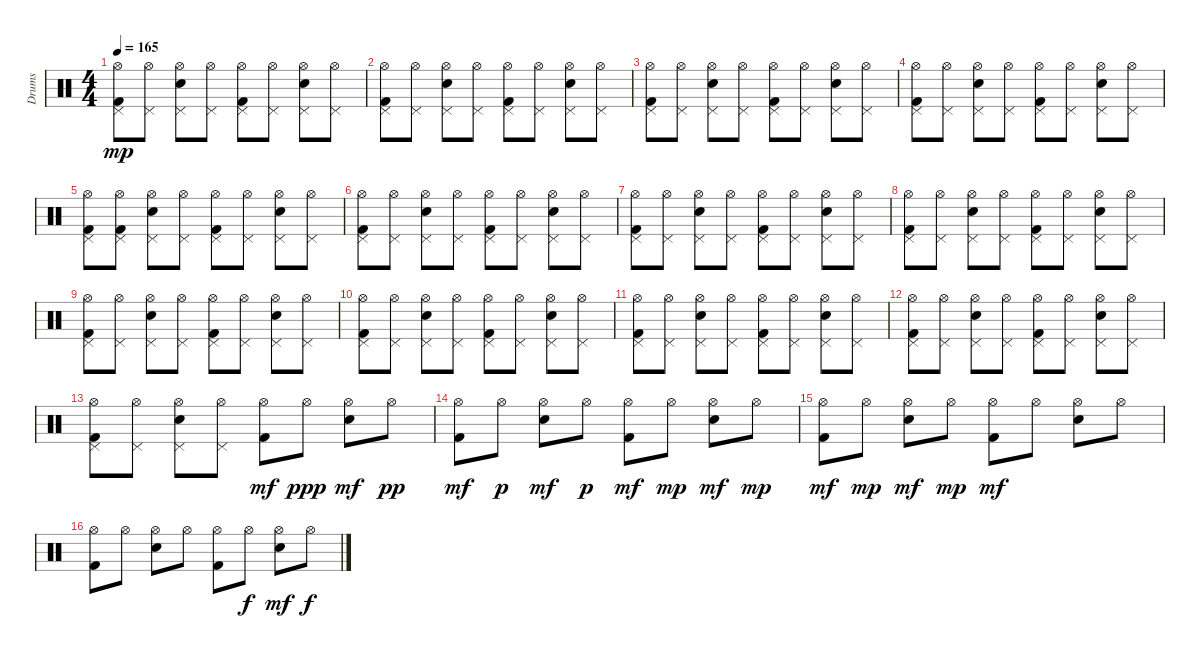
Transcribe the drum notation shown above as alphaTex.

\track ("Drums" "Drums") {instrument percussion}
\staff {score}
\articulation defaults
\ts (4 4)
\tempo 165
\clef neutral
\ks c
("Hi-Hat (open)" "Pedal Hi-Hat (hit)" "Kick (hit) 2").8{dy mp} ("Hi-Hat (open)" "Pedal Hi-Hat (hit)").8 ("Hi-Hat (open)" "Pedal Hi-Hat (hit)" "Electric Snare (hit)").8 ("Hi-Hat (open)" "Pedal Hi-Hat (hit)").8 ("Hi-Hat (open)" "Pedal Hi-Hat (hit)" "Kick (hit) 2").8 ("Hi-Hat (open)" "Pedal Hi-Hat (hit)").8 ("Hi-Hat (open)" "Pedal Hi-Hat (hit)" "Electric Snare (hit)").8 ("Hi-Hat (open)" "Pedal Hi-Hat (hit)").8 |
("Hi-Hat (open)" "Pedal Hi-Hat (hit)" "Kick (hit) 2").8 ("Hi-Hat (open)" "Pedal Hi-Hat (hit)").8 ("Hi-Hat (open)" "Pedal Hi-Hat (hit)" "Electric Snare (hit)").8 ("Hi-Hat (open)" "Pedal Hi-Hat (hit)").8 ("Hi-Hat (open)" "Pedal Hi-Hat (hit)" "Kick (hit) 2").8 ("Hi-Hat (open)" "Pedal Hi-Hat (hit)").8 ("Hi-Hat (open)" "Pedal Hi-Hat (hit)" "Electric Snare (hit)").8 ("Hi-Hat (open)" "Pedal Hi-Hat (hit)").8 |
("Hi-Hat (open)" "Pedal Hi-Hat (hit)" "Kick (hit) 2").8 ("Hi-Hat (open)" "Pedal Hi-Hat (hit)").8 ("Hi-Hat (open)" "Pedal Hi-Hat (hit)" "Electric Snare (hit)").8 ("Hi-Hat (open)" "Pedal Hi-Hat (hit)").8 ("Hi-Hat (open)" "Pedal Hi-Hat (hit)" "Kick (hit) 2").8 ("Hi-Hat (open)" "Pedal Hi-Hat (hit)").8 ("Hi-Hat (open)" "Pedal Hi-Hat (hit)" "Electric Snare (hit)").8 ("Hi-Hat (open)" "Pedal Hi-Hat (hit)").8 |
("Hi-Hat (open)" "Pedal Hi-Hat (hit)" "Kick (hit) 2").8 ("Hi-Hat (open)" "Pedal Hi-Hat (hit)").8 ("Hi-Hat (open)" "Pedal Hi-Hat (hit)" "Electric Snare (hit)").8 ("Hi-Hat (open)" "Pedal Hi-Hat (hit)").8 ("Hi-Hat (open)" "Pedal Hi-Hat (hit)" "Kick (hit) 2").8 ("Hi-Hat (open)" "Pedal Hi-Hat (hit)").8 ("Hi-Hat (open)" "Pedal Hi-Hat (hit)" "Electric Snare (hit)").8 ("Hi-Hat (open)" "Pedal Hi-Hat (hit)").8 |
("Hi-Hat (open)" "Pedal Hi-Hat (hit)" "Kick (hit) 2").8 ("Hi-Hat (open)" "Pedal Hi-Hat (hit)" "Kick (hit) 2").8 ("Hi-Hat (open)" "Pedal Hi-Hat (hit)" "Electric Snare (hit)").8 ("Hi-Hat (open)" "Pedal Hi-Hat (hit)").8 ("Hi-Hat (open)" "Pedal Hi-Hat (hit)" "Kick (hit) 2").8 ("Hi-Hat (open)" "Pedal Hi-Hat (hit)").8 ("Hi-Hat (open)" "Pedal Hi-Hat (hit)" "Electric Snare (hit)").8 ("Hi-Hat (open)" "Pedal Hi-Hat (hit)").8 |
("Hi-Hat (open)" "Pedal Hi-Hat (hit)" "Kick (hit) 2").8 ("Hi-Hat (open)" "Pedal Hi-Hat (hit)").8 ("Hi-Hat (open)" "Pedal Hi-Hat (hit)" "Electric Snare (hit)").8 ("Hi-Hat (open)" "Pedal Hi-Hat (hit)").8 ("Hi-Hat (open)" "Pedal Hi-Hat (hit)" "Kick (hit) 2").8 ("Hi-Hat (open)" "Pedal Hi-Hat (hit)").8 ("Hi-Hat (open)" "Pedal Hi-Hat (hit)" "Electric Snare (hit)").8 ("Hi-Hat (open)" "Pedal Hi-Hat (hit)").8 |
("Hi-Hat (open)" "Pedal Hi-Hat (hit)" "Kick (hit) 2").8 ("Hi-Hat (open)" "Pedal Hi-Hat (hit)").8 ("Hi-Hat (open)" "Pedal Hi-Hat (hit)" "Electric Snare (hit)").8 ("Hi-Hat (open)" "Pedal Hi-Hat (hit)").8 ("Hi-Hat (open)" "Pedal Hi-Hat (hit)" "Kick (hit) 2").8 ("Hi-Hat (open)" "Pedal Hi-Hat (hit)").8 ("Hi-Hat (open)" "Pedal Hi-Hat (hit)" "Electric Snare (hit)").8 ("Hi-Hat (open)" "Pedal Hi-Hat (hit)").8 |
("Hi-Hat (open)" "Pedal Hi-Hat (hit)" "Kick (hit) 2").8 ("Hi-Hat (open)" "Pedal Hi-Hat (hit)").8 ("Hi-Hat (open)" "Pedal Hi-Hat (hit)" "Electric Snare (hit)").8 ("Hi-Hat (open)" "Pedal Hi-Hat (hit)").8 ("Hi-Hat (open)" "Pedal Hi-Hat (hit)" "Kick (hit) 2").8 ("Hi-Hat (open)" "Pedal Hi-Hat (hit)").8 ("Hi-Hat (open)" "Pedal Hi-Hat (hit)" "Electric Snare (hit)").8 ("Hi-Hat (open)" "Pedal Hi-Hat (hit)").8 |
("Hi-Hat (open)" "Pedal Hi-Hat (hit)" "Kick (hit) 2").8 ("Hi-Hat (open)" "Pedal Hi-Hat (hit)").8 ("Hi-Hat (open)" "Pedal Hi-Hat (hit)" "Electric Snare (hit)").8 ("Hi-Hat (open)" "Pedal Hi-Hat (hit)").8 ("Hi-Hat (open)" "Pedal Hi-Hat (hit)" "Kick (hit) 2").8 ("Hi-Hat (open)" "Pedal Hi-Hat (hit)").8 ("Hi-Hat (open)" "Pedal Hi-Hat (hit)" "Electric Snare (hit)").8 ("Hi-Hat (open)" "Pedal Hi-Hat (hit)").8 |
("Hi-Hat (open)" "Pedal Hi-Hat (hit)" "Kick (hit) 2").8 ("Hi-Hat (open)" "Pedal Hi-Hat (hit)").8 ("Hi-Hat (open)" "Pedal Hi-Hat (hit)" "Electric Snare (hit)").8 ("Hi-Hat (open)" "Pedal Hi-Hat (hit)").8 ("Hi-Hat (open)" "Pedal Hi-Hat (hit)" "Kick (hit) 2").8 ("Hi-Hat (open)" "Pedal Hi-Hat (hit)").8 ("Hi-Hat (open)" "Pedal Hi-Hat (hit)" "Electric Snare (hit)").8 ("Hi-Hat (open)" "Pedal Hi-Hat (hit)").8 |
("Hi-Hat (open)" "Pedal Hi-Hat (hit)" "Kick (hit) 2").8 ("Hi-Hat (open)" "Pedal Hi-Hat (hit)").8 ("Hi-Hat (open)" "Pedal Hi-Hat (hit)" "Electric Snare (hit)").8 ("Hi-Hat (open)" "Pedal Hi-Hat (hit)").8 ("Hi-Hat (open)" "Pedal Hi-Hat (hit)" "Kick (hit) 2").8 ("Hi-Hat (open)" "Pedal Hi-Hat (hit)").8 ("Hi-Hat (open)" "Pedal Hi-Hat (hit)" "Electric Snare (hit)").8 ("Hi-Hat (open)" "Pedal Hi-Hat (hit)").8 |
("Hi-Hat (open)" "Pedal Hi-Hat (hit)" "Kick (hit) 2").8 ("Hi-Hat (open)" "Pedal Hi-Hat (hit)").8 ("Hi-Hat (open)" "Pedal Hi-Hat (hit)" "Electric Snare (hit)").8 ("Hi-Hat (open)" "Pedal Hi-Hat (hit)").8 ("Hi-Hat (open)" "Pedal Hi-Hat (hit)" "Kick (hit) 2").8 ("Hi-Hat (open)" "Pedal Hi-Hat (hit)").8 ("Hi-Hat (open)" "Pedal Hi-Hat (hit)" "Electric Snare (hit)").8 ("Hi-Hat (open)" "Pedal Hi-Hat (hit)").8 |
("Hi-Hat (open)" "Pedal Hi-Hat (hit)" "Kick (hit) 2").8 ("Hi-Hat (open)" "Pedal Hi-Hat (hit)").8 ("Hi-Hat (open)" "Pedal Hi-Hat (hit)" "Electric Snare (hit)").8 ("Hi-Hat (open)" "Pedal Hi-Hat (hit)").8 ("Hi-Hat (open)" "Kick (hit) 2").8{dy mf} "Hi-Hat (open)".8{dy ppp} ("Hi-Hat (open)" "Electric Snare (hit)").8{dy mf} "Hi-Hat (open)".8{dy pp} |
("Hi-Hat (open)" "Kick (hit) 2").8{dy mf} "Hi-Hat (open)".8{dy p} ("Hi-Hat (open)" "Electric Snare (hit)").8{dy mf} "Hi-Hat (open)".8{dy p} ("Hi-Hat (open)" "Kick (hit) 2").8{dy mf} "Hi-Hat (open)".8{dy mp} ("Hi-Hat (open)" "Electric Snare (hit)").8{dy mf} "Hi-Hat (open)".8{dy mp} |
("Hi-Hat (open)" "Kick (hit) 2").8{dy mf} "Hi-Hat (open)".8{dy mp} ("Hi-Hat (open)" "Electric Snare (hit)").8{dy mf} "Hi-Hat (open)".8{dy mp} ("Hi-Hat (open)" "Kick (hit) 2").8{dy mf} "Hi-Hat (open)".8 ("Hi-Hat (open)" "Electric Snare (hit)").8 "Hi-Hat (open)".8 |
("Hi-Hat (open)" "Kick (hit) 2").8 "Hi-Hat (open)".8 ("Hi-Hat (open)" "Electric Snare (hit)").8 "Hi-Hat (open)".8 ("Hi-Hat (open)" "Kick (hit) 2").8 "Hi-Hat (open)".8{dy f} ("Hi-Hat (open)" "Electric Snare (hit)").8{dy mf} "Hi-Hat (open)".8{dy f}
